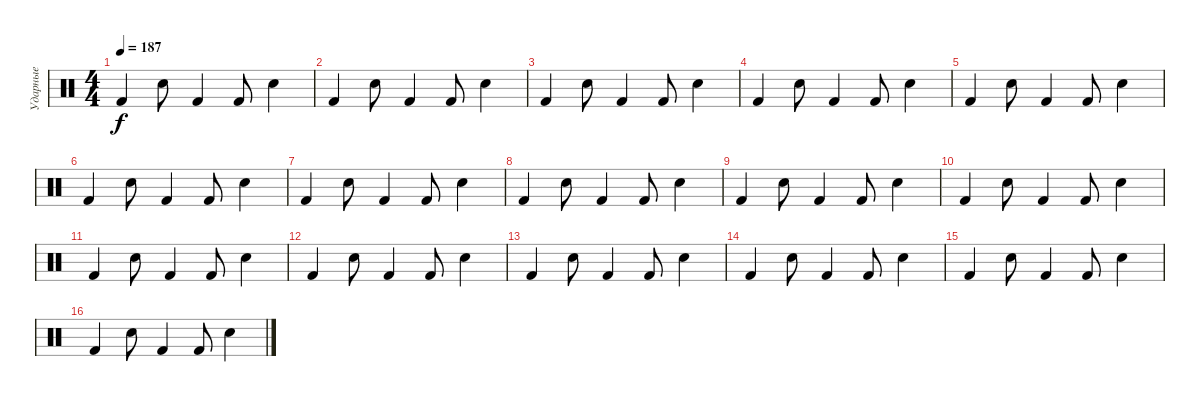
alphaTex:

\track ("Ударные" "Ударные") {instrument percussion}
\staff {score}
\articulation defaults
\ts (4 4)
\tempo 187
\clef neutral
\ks c "Kick (hit) 2".4{dy f} "Snare (hit) 2".8 "Kick (hit) 2".4 "Kick (hit) 2".8 "Snare (hit) 2".4
|
"Kick (hit) 2".4 "Snare (hit) 2".8 "Kick (hit) 2".4 "Kick (hit) 2".8 "Snare (hit) 2".4 |
"Kick (hit) 2".4 "Snare (hit) 2".8 "Kick (hit) 2".4 "Kick (hit) 2".8 "Snare (hit) 2".4 |
"Kick (hit) 2".4 "Snare (hit) 2".8 "Kick (hit) 2".4 "Kick (hit) 2".8 "Snare (hit) 2".4 |
"Kick (hit) 2".4 "Snare (hit) 2".8 "Kick (hit) 2".4 "Kick (hit) 2".8 "Snare (hit) 2".4 |
"Kick (hit) 2".4 "Snare (hit) 2".8 "Kick (hit) 2".4 "Kick (hit) 2".8 "Snare (hit) 2".4 |
"Kick (hit) 2".4 "Snare (hit) 2".8 "Kick (hit) 2".4 "Kick (hit) 2".8 "Snare (hit) 2".4 |
"Kick (hit) 2".4 "Snare (hit) 2".8 "Kick (hit) 2".4 "Kick (hit) 2".8 "Snare (hit) 2".4 |
"Kick (hit) 2".4 "Snare (hit) 2".8 "Kick (hit) 2".4 "Kick (hit) 2".8 "Snare (hit) 2".4 |
"Kick (hit) 2".4 "Snare (hit) 2".8 "Kick (hit) 2".4 "Kick (hit) 2".8 "Snare (hit) 2".4 |
"Kick (hit) 2".4 "Snare (hit) 2".8 "Kick (hit) 2".4 "Kick (hit) 2".8 "Snare (hit) 2".4 |
"Kick (hit) 2".4 "Snare (hit) 2".8 "Kick (hit) 2".4 "Kick (hit) 2".8 "Snare (hit) 2".4 |
"Kick (hit) 2".4 "Snare (hit) 2".8 "Kick (hit) 2".4 "Kick (hit) 2".8 "Snare (hit) 2".4 |
"Kick (hit) 2".4 "Snare (hit) 2".8 "Kick (hit) 2".4 "Kick (hit) 2".8 "Snare (hit) 2".4 |
"Kick (hit) 2".4 "Snare (hit) 2".8 "Kick (hit) 2".4 "Kick (hit) 2".8 "Snare (hit) 2".4 |
"Kick (hit) 2".4 "Snare (hit) 2".8 "Kick (hit) 2".4 "Kick (hit) 2".8 "Snare (hit) 2".4
